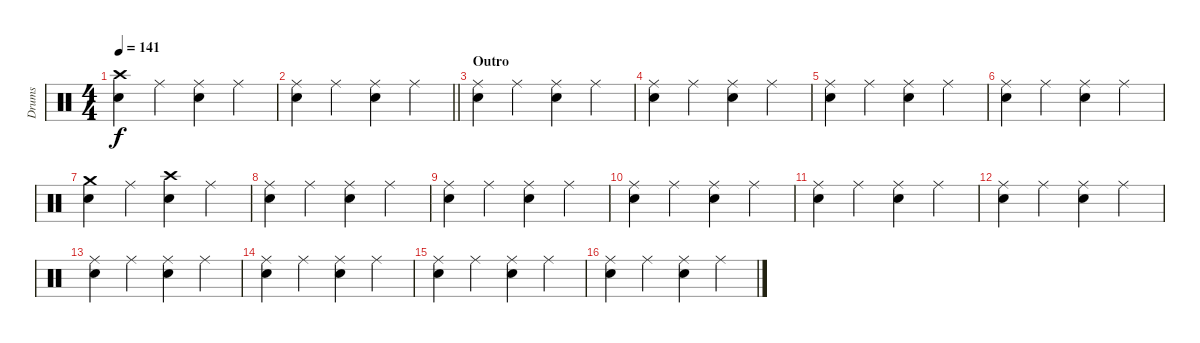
\track ("Drums" "Drums") {instrument percussion}
\staff {score}
\articulation defaults
\ts (4 4)
\tempo 141
\clef neutral
\ks c
("Crash high (hit)" "Snare (hit) 2").4{dy f} "Ride (middle)".4 ("Ride (middle)" "Snare (hit) 2").4 "Ride (middle)".4 |
\barLineRight lightlight
("Ride (middle)" "Snare (hit) 2").4 "Ride (middle)".4 ("Ride (middle)" "Snare (hit) 2").4 "Ride (middle)".4 |
\section ("" "Outro")
("Ride (middle)" "Snare (hit) 2").4 "Ride (middle)".4 ("Ride (middle)" "Snare (hit) 2").4 "Ride (middle)".4 |
("Ride (middle)" "Snare (hit) 2").4 "Ride (middle)".4 ("Ride (middle)" "Snare (hit) 2").4 "Ride (middle)".4 |
("Ride (middle)" "Snare (hit) 2").4 "Ride (middle)".4 ("Ride (middle)" "Snare (hit) 2").4 "Ride (middle)".4 |
("Ride (middle)" "Snare (hit) 2").4 "Ride (middle)".4 ("Ride (middle)" "Snare (hit) 2").4 "Ride (middle)".4 |
("Crash medium (hit)" "Snare (hit) 2").4 "Ride (middle)".4 ("Crash high (hit)" "Snare (hit) 2").4 "Ride (middle)".4 |
("Ride (middle)" "Snare (hit) 2").4 "Ride (middle)".4 ("Ride (middle)" "Snare (hit) 2").4 "Ride (middle)".4 |
("Ride (middle)" "Snare (hit) 2").4 "Ride (middle)".4 ("Ride (middle)" "Snare (hit) 2").4 "Ride (middle)".4 |
("Ride (middle)" "Snare (hit) 2").4 "Ride (middle)".4 ("Ride (middle)" "Snare (hit) 2").4 "Ride (middle)".4 |
("Ride (middle)" "Snare (hit) 2").4 "Ride (middle)".4 ("Ride (middle)" "Snare (hit) 2").4 "Ride (middle)".4 |
("Ride (middle)" "Snare (hit) 2").4 "Ride (middle)".4 ("Ride (middle)" "Snare (hit) 2").4 "Ride (middle)".4 |
("Ride (middle)" "Snare (hit) 2").4 "Ride (middle)".4 ("Ride (middle)" "Snare (hit) 2").4 "Ride (middle)".4 |
("Ride (middle)" "Snare (hit) 2").4 "Ride (middle)".4 ("Ride (middle)" "Snare (hit) 2").4 "Ride (middle)".4 |
("Ride (middle)" "Snare (hit) 2").4 "Ride (middle)".4 ("Ride (middle)" "Snare (hit) 2").4 "Ride (middle)".4 |
("Ride (middle)" "Snare (hit) 2").4 "Ride (middle)".4 ("Ride (middle)" "Snare (hit) 2").4 "Ride (middle)".4
